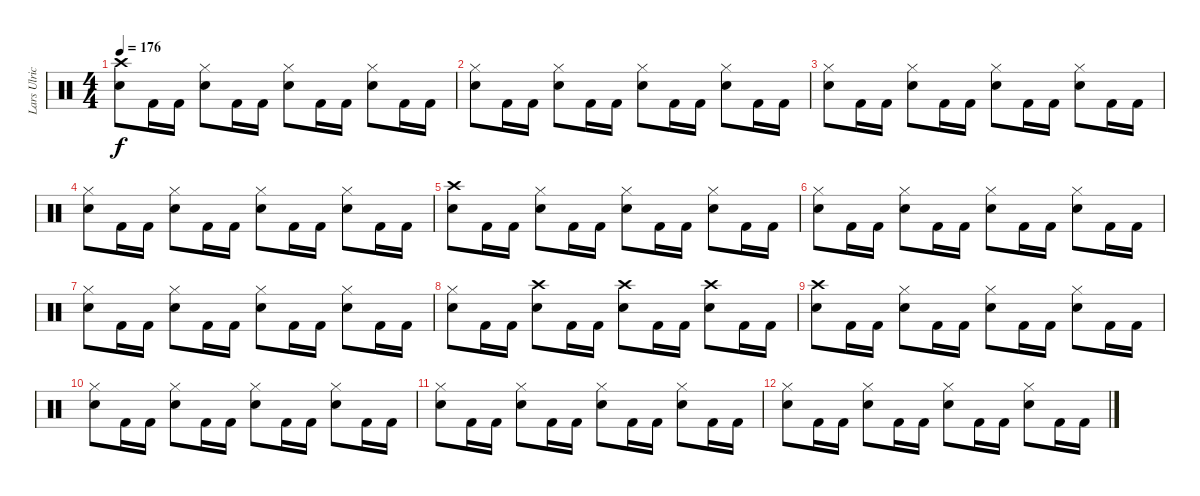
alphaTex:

\track ("Lars Ulrich" "Lars Ulric") {instrument percussion}
\staff {score}
\articulation defaults
\ts (4 4)
\tempo 176
\clef neutral
\ks c
("Crash high (hit)" "Snare (hit) 2").8{dy f} "Kick (hit) 2".16 "Kick (hit) 2".16 ("Hi-Hat (closed)" "Snare (hit) 2").8 "Kick (hit) 2".16 "Kick (hit) 2".16 ("Hi-Hat (closed)" "Snare (hit) 2").8 "Kick (hit) 2".16 "Kick (hit) 2".16 ("Hi-Hat (closed)" "Snare (hit) 2").8 "Kick (hit) 2".16 "Kick (hit) 2".16 |
("Hi-Hat (closed)" "Snare (hit) 2").8 "Kick (hit) 2".16 "Kick (hit) 2".16 ("Hi-Hat (closed)" "Snare (hit) 2").8 "Kick (hit) 2".16 "Kick (hit) 2".16 ("Hi-Hat (closed)" "Snare (hit) 2").8 "Kick (hit) 2".16 "Kick (hit) 2".16 ("Hi-Hat (closed)" "Snare (hit) 2").8 "Kick (hit) 2".16 "Kick (hit) 2".16 |
("Hi-Hat (closed)" "Snare (hit) 2").8 "Kick (hit) 2".16 "Kick (hit) 2".16 ("Hi-Hat (closed)" "Snare (hit) 2").8 "Kick (hit) 2".16 "Kick (hit) 2".16 ("Hi-Hat (closed)" "Snare (hit) 2").8 "Kick (hit) 2".16 "Kick (hit) 2".16 ("Hi-Hat (closed)" "Snare (hit) 2").8 "Kick (hit) 2".16 "Kick (hit) 2".16 |
("Hi-Hat (closed)" "Snare (hit) 2").8 "Kick (hit) 2".16 "Kick (hit) 2".16 ("Hi-Hat (closed)" "Snare (hit) 2").8 "Kick (hit) 2".16 "Kick (hit) 2".16 ("Hi-Hat (closed)" "Snare (hit) 2").8 "Kick (hit) 2".16 "Kick (hit) 2".16 ("Hi-Hat (closed)" "Snare (hit) 2").8 "Kick (hit) 2".16 "Kick (hit) 2".16 |
("Crash high (hit)" "Snare (hit) 2").8 "Kick (hit) 2".16 "Kick (hit) 2".16 ("Hi-Hat (closed)" "Snare (hit) 2").8 "Kick (hit) 2".16 "Kick (hit) 2".16 ("Hi-Hat (closed)" "Snare (hit) 2").8 "Kick (hit) 2".16 "Kick (hit) 2".16 ("Hi-Hat (closed)" "Snare (hit) 2").8 "Kick (hit) 2".16 "Kick (hit) 2".16 |
("Hi-Hat (closed)" "Snare (hit) 2").8{volume 11} "Kick (hit) 2".16 "Kick (hit) 2".16 ("Hi-Hat (closed)" "Snare (hit) 2").8 "Kick (hit) 2".16 "Kick (hit) 2".16 ("Hi-Hat (closed)" "Snare (hit) 2").8 "Kick (hit) 2".16 "Kick (hit) 2".16 ("Hi-Hat (closed)" "Snare (hit) 2").8 "Kick (hit) 2".16 "Kick (hit) 2".16 |
("Hi-Hat (closed)" "Snare (hit) 2").8 "Kick (hit) 2".16 "Kick (hit) 2".16 ("Hi-Hat (closed)" "Snare (hit) 2").8 "Kick (hit) 2".16 "Kick (hit) 2".16 ("Hi-Hat (closed)" "Snare (hit) 2").8 "Kick (hit) 2".16 "Kick (hit) 2".16 ("Hi-Hat (closed)" "Snare (hit) 2").8 "Kick (hit) 2".16 "Kick (hit) 2".16 |
("Hi-Hat (closed)" "Snare (hit) 2").8{volume 9} "Kick (hit) 2".16 "Kick (hit) 2".16 ("Crash high (hit)" "Snare (hit) 2").8 "Kick (hit) 2".16 "Kick (hit) 2".16 ("Crash high (hit)" "Snare (hit) 2").8 "Kick (hit) 2".16 "Kick (hit) 2".16 ("Crash high (hit)" "Snare (hit) 2").8 "Kick (hit) 2".16 "Kick (hit) 2".16 |
("Crash high (hit)" "Snare (hit) 2").8 "Kick (hit) 2".16 "Kick (hit) 2".16 ("Hi-Hat (closed)" "Snare (hit) 2").8 "Kick (hit) 2".16 "Kick (hit) 2".16 ("Hi-Hat (closed)" "Snare (hit) 2").8 "Kick (hit) 2".16 "Kick (hit) 2".16 ("Hi-Hat (closed)" "Snare (hit) 2").8 "Kick (hit) 2".16 "Kick (hit) 2".16 |
("Hi-Hat (closed)" "Snare (hit) 2").8{volume 7} "Kick (hit) 2".16 "Kick (hit) 2".16 ("Hi-Hat (closed)" "Snare (hit) 2").8 "Kick (hit) 2".16 "Kick (hit) 2".16 ("Hi-Hat (closed)" "Snare (hit) 2").8 "Kick (hit) 2".16 "Kick (hit) 2".16 ("Hi-Hat (closed)" "Snare (hit) 2").8 "Kick (hit) 2".16 "Kick (hit) 2".16 |
("Hi-Hat (closed)" "Snare (hit) 2").8 "Kick (hit) 2".16 "Kick (hit) 2".16 ("Hi-Hat (closed)" "Snare (hit) 2").8 "Kick (hit) 2".16 "Kick (hit) 2".16 ("Hi-Hat (closed)" "Snare (hit) 2").8 "Kick (hit) 2".16 "Kick (hit) 2".16 ("Hi-Hat (closed)" "Snare (hit) 2").8 "Kick (hit) 2".16 "Kick (hit) 2".16 |
("Hi-Hat (closed)" "Snare (hit) 2").8{volume 5} "Kick (hit) 2".16 "Kick (hit) 2".16 ("Hi-Hat (closed)" "Snare (hit) 2").8 "Kick (hit) 2".16 "Kick (hit) 2".16 ("Hi-Hat (closed)" "Snare (hit) 2").8 "Kick (hit) 2".16 "Kick (hit) 2".16 ("Hi-Hat (closed)" "Snare (hit) 2").8 "Kick (hit) 2".16 "Kick (hit) 2".16
